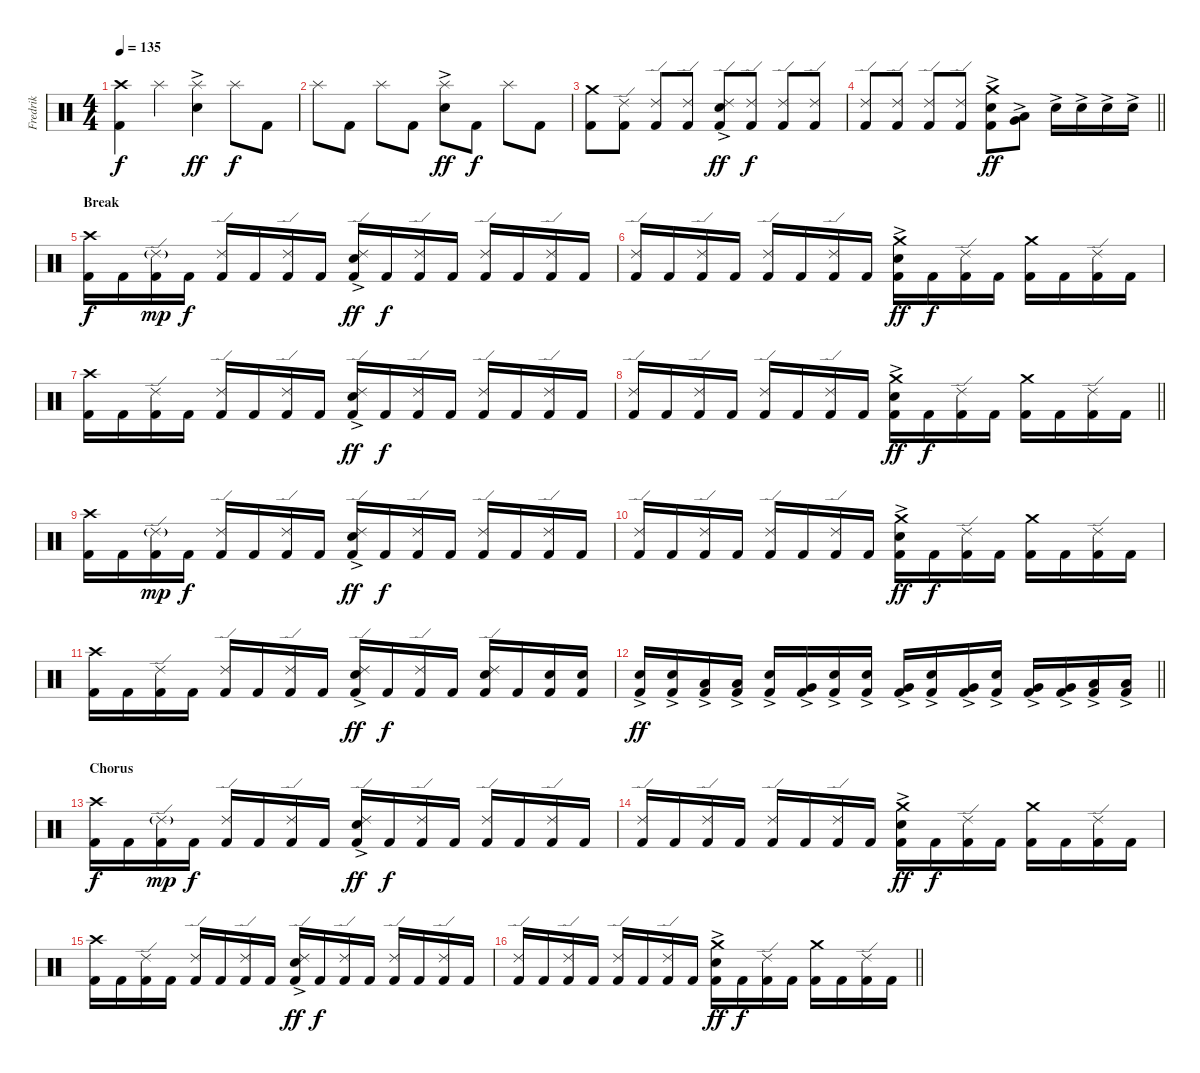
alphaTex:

\track ("Fredrik" "Fredrik") {instrument percussion}
\staff {score}
\articulation defaults
\ts (4 4)
\section ("" "")
\tempo 135
\clef neutral
\ks c
("Kick (hit) 2" "Crash high (hit)").4{dy f} "Splash (hit)".4 ("Snare (hit) 2"{ac} "Splash (hit)").4{dy ff} "Splash (hit)".8{dy f} "Kick (hit) 2".8 |
"Splash (hit)".8 "Kick (hit) 2".8 "Splash (hit)".8 "Kick (hit) 2".8 ("Snare (hit) 2"{ac} "Splash (hit)").8{dy ff} "Kick (hit) 2".8{dy f} "Splash (hit)".8 "Kick (hit) 2".8 |
("Kick (hit) 2" "Crash medium (hit)").8 ("Kick (hit) 2" "Ride (edge) 2").8 ("Kick (hit) 2" "Ride (edge) 2").8 ("Kick (hit) 2" "Ride (edge) 2").8 ("Kick (hit) 2" "Snare (hit) 2"{ac} "Ride (edge) 2").8{dy ff} ("Kick (hit) 2" "Ride (edge) 2").8{dy f} ("Kick (hit) 2" "Ride (edge) 2").8 ("Kick (hit) 2" "Ride (edge) 2").8 |
\barLineRight lightlight
("Kick (hit) 2" "Ride (edge) 2").8 ("Kick (hit) 2" "Ride (edge) 2").8 ("Kick (hit) 2" "Ride (edge) 2").8 ("Kick (hit) 2" "Ride (edge) 2").8 ("Kick (hit) 2" "Snare (hit) 2"{ac} "Crash medium (hit)").8{dy ff} ("Very Low Tom (hit)"{ac} "Low Floor Tom (hit)"{ac}).8 "Snare (hit) 2"{ac}.16 "Snare (hit) 2"{ac}.16 "Snare (hit) 2"{ac}.16 "Snare (hit) 2"{ac}.16 |
\section ("" "Break")
("Kick (hit) 2" "Crash high (hit)").16{dy f} "Kick (hit) 2".16 ("Kick (hit) 2" "Ride (edge) 2"{g}).16{dy mp} "Kick (hit) 2".16{dy f} ("Kick (hit) 2" "Ride (edge) 2").16 "Kick (hit) 2".16 ("Kick (hit) 2" "Ride (edge) 2").16 "Kick (hit) 2".16 ("Kick (hit) 2" "Snare (hit) 2"{ac} "Ride (edge) 2").16{dy ff} "Kick (hit) 2".16{dy f} ("Kick (hit) 2" "Ride (edge) 2").16 "Kick (hit) 2".16 ("Kick (hit) 2" "Ride (edge) 2").16 "Kick (hit) 2".16 ("Kick (hit) 2" "Ride (edge) 2").16 "Kick (hit) 2".16 |
("Kick (hit) 2" "Ride (edge) 2").16 "Kick (hit) 2".16 ("Kick (hit) 2" "Ride (edge) 2").16 "Kick (hit) 2".16 ("Kick (hit) 2" "Ride (edge) 2").16 "Kick (hit) 2".16 ("Kick (hit) 2" "Ride (edge) 2").16 "Kick (hit) 2".16 ("Kick (hit) 2" "Snare (hit) 2"{ac} "Crash medium (hit)").16{dy ff} "Kick (hit) 2".16{dy f} ("Kick (hit) 2" "Ride (edge) 2").16 "Kick (hit) 2".16 ("Kick (hit) 2" "Crash medium (hit)").16 "Kick (hit) 2".16 ("Kick (hit) 2" "Ride (edge) 2").16 "Kick (hit) 2".16 |
("Kick (hit) 2" "Crash high (hit)").16 "Kick (hit) 2".16 ("Kick (hit) 2" "Ride (edge) 2").16 "Kick (hit) 2".16 ("Kick (hit) 2" "Ride (edge) 2").16 "Kick (hit) 2".16 ("Kick (hit) 2" "Ride (edge) 2").16 "Kick (hit) 2".16 ("Kick (hit) 2" "Snare (hit) 2"{ac} "Ride (edge) 2").16{dy ff} "Kick (hit) 2".16{dy f} ("Kick (hit) 2" "Ride (edge) 2").16 "Kick (hit) 2".16 ("Kick (hit) 2" "Ride (edge) 2").16 "Kick (hit) 2".16 ("Kick (hit) 2" "Ride (edge) 2").16 "Kick (hit) 2".16 |
\barLineRight lightlight
("Kick (hit) 2" "Ride (edge) 2").16 "Kick (hit) 2".16 ("Kick (hit) 2" "Ride (edge) 2").16 "Kick (hit) 2".16 ("Kick (hit) 2" "Ride (edge) 2").16 "Kick (hit) 2".16 ("Kick (hit) 2" "Ride (edge) 2").16 "Kick (hit) 2".16 ("Kick (hit) 2" "Snare (hit) 2"{ac} "Crash medium (hit)").16{dy ff} "Kick (hit) 2".16{dy f} ("Kick (hit) 2" "Ride (edge) 2").16 "Kick (hit) 2".16 ("Kick (hit) 2" "Crash medium (hit)").16 "Kick (hit) 2".16 ("Kick (hit) 2" "Ride (edge) 2").16 "Kick (hit) 2".16 |
\section ("" "")
("Kick (hit) 2" "Crash high (hit)").16 "Kick (hit) 2".16 ("Kick (hit) 2" "Ride (edge) 2"{g}).16{dy mp} "Kick (hit) 2".16{dy f} ("Kick (hit) 2" "Ride (edge) 2").16 "Kick (hit) 2".16 ("Kick (hit) 2" "Ride (edge) 2").16 "Kick (hit) 2".16 ("Kick (hit) 2" "Snare (hit) 2"{ac} "Ride (edge) 2").16{dy ff} "Kick (hit) 2".16{dy f} ("Kick (hit) 2" "Ride (edge) 2").16 "Kick (hit) 2".16 ("Kick (hit) 2" "Ride (edge) 2").16 "Kick (hit) 2".16 ("Kick (hit) 2" "Ride (edge) 2").16 "Kick (hit) 2".16 |
("Kick (hit) 2" "Ride (edge) 2").16 "Kick (hit) 2".16 ("Kick (hit) 2" "Ride (edge) 2").16 "Kick (hit) 2".16 ("Kick (hit) 2" "Ride (edge) 2").16 "Kick (hit) 2".16 ("Kick (hit) 2" "Ride (edge) 2").16 "Kick (hit) 2".16 ("Kick (hit) 2" "Snare (hit) 2"{ac} "Crash medium (hit)").16{dy ff} "Kick (hit) 2".16{dy f} ("Kick (hit) 2" "Ride (edge) 2").16 "Kick (hit) 2".16 ("Kick (hit) 2" "Crash medium (hit)").16 "Kick (hit) 2".16 ("Kick (hit) 2" "Ride (edge) 2").16 "Kick (hit) 2".16 |
("Kick (hit) 2" "Crash high (hit)").16 "Kick (hit) 2".16 ("Kick (hit) 2" "Ride (edge) 2").16 "Kick (hit) 2".16 ("Kick (hit) 2" "Ride (edge) 2").16 "Kick (hit) 2".16 ("Kick (hit) 2" "Ride (edge) 2").16 "Kick (hit) 2".16 ("Kick (hit) 2" "Snare (hit) 2"{ac} "Ride (edge) 2").16{dy ff} "Kick (hit) 2".16{dy f} ("Kick (hit) 2" "Ride (edge) 2").16 "Kick (hit) 2".16 ("Kick (hit) 2" "Snare (hit) 2" "Ride (edge) 2").16 "Kick (hit) 2".16 ("Kick (hit) 2" "Snare (hit) 2").16 ("Kick (hit) 2" "Snare (hit) 2").16 |
\barLineRight lightlight
("Kick (hit) 2" "Snare (hit) 2"{ac}).16{dy ff} ("Kick (hit) 2" "Snare (hit) 2"{ac}).16 ("Kick (hit) 2" "Low Tom (hit)"{ac}).16 ("Kick (hit) 2" "Low Tom (hit)"{ac}).16 ("Kick (hit) 2" "Snare (hit) 2"{ac}).16 ("Kick (hit) 2" "Very Low Tom (hit)"{ac}).16 ("Kick (hit) 2" "Snare (hit) 2"{ac}).16 ("Kick (hit) 2" "Snare (hit) 2"{ac}).16 ("Kick (hit) 2" "Very Low Tom (hit)"{ac}).16 ("Kick (hit) 2" "Snare (hit) 2"{ac}).16 ("Kick (hit) 2" "Very Low Tom (hit)"{ac}).16 ("Kick (hit) 2" "Snare (hit) 2"{ac}).16 ("Kick (hit) 2" "Very Low Tom (hit)"{ac}).16 ("Kick (hit) 2" "Very Low Tom (hit)"{ac}).16 ("Kick (hit) 2" "Low Floor Tom (hit)"{ac}).16 ("Kick (hit) 2" "Low Floor Tom (hit)"{ac}).16 |
\section ("" "Chorus")
("Kick (hit) 2" "Crash high (hit)").16{dy f} "Kick (hit) 2".16 ("Kick (hit) 2" "Ride (edge) 2"{g}).16{dy mp} "Kick (hit) 2".16{dy f} ("Kick (hit) 2" "Ride (edge) 2").16 "Kick (hit) 2".16 ("Kick (hit) 2" "Ride (edge) 2").16 "Kick (hit) 2".16 ("Kick (hit) 2" "Snare (hit) 2"{ac} "Ride (edge) 2").16{dy ff} "Kick (hit) 2".16{dy f} ("Kick (hit) 2" "Ride (edge) 2").16 "Kick (hit) 2".16 ("Kick (hit) 2" "Ride (edge) 2").16 "Kick (hit) 2".16 ("Kick (hit) 2" "Ride (edge) 2").16 "Kick (hit) 2".16 |
("Kick (hit) 2" "Ride (edge) 2").16 "Kick (hit) 2".16 ("Kick (hit) 2" "Ride (edge) 2").16 "Kick (hit) 2".16 ("Kick (hit) 2" "Ride (edge) 2").16 "Kick (hit) 2".16 ("Kick (hit) 2" "Ride (edge) 2").16 "Kick (hit) 2".16 ("Kick (hit) 2" "Snare (hit) 2"{ac} "Crash medium (hit)").16{dy ff} "Kick (hit) 2".16{dy f} ("Kick (hit) 2" "Ride (edge) 2").16 "Kick (hit) 2".16 ("Kick (hit) 2" "Crash medium (hit)").16 "Kick (hit) 2".16 ("Kick (hit) 2" "Ride (edge) 2").16 "Kick (hit) 2".16 |
("Kick (hit) 2" "Crash high (hit)").16 "Kick (hit) 2".16 ("Kick (hit) 2" "Ride (edge) 2").16 "Kick (hit) 2".16 ("Kick (hit) 2" "Ride (edge) 2").16 "Kick (hit) 2".16 ("Kick (hit) 2" "Ride (edge) 2").16 "Kick (hit) 2".16 ("Kick (hit) 2" "Snare (hit) 2"{ac} "Ride (edge) 2").16{dy ff} "Kick (hit) 2".16{dy f} ("Kick (hit) 2" "Ride (edge) 2").16 "Kick (hit) 2".16 ("Kick (hit) 2" "Ride (edge) 2").16 "Kick (hit) 2".16 ("Kick (hit) 2" "Ride (edge) 2").16 "Kick (hit) 2".16 |
\barLineRight lightlight
("Kick (hit) 2" "Ride (edge) 2").16 "Kick (hit) 2".16 ("Kick (hit) 2" "Ride (edge) 2").16 "Kick (hit) 2".16 ("Kick (hit) 2" "Ride (edge) 2").16 "Kick (hit) 2".16 ("Kick (hit) 2" "Ride (edge) 2").16 "Kick (hit) 2".16 ("Kick (hit) 2" "Snare (hit) 2"{ac} "Crash medium (hit)").16{dy ff} "Kick (hit) 2".16{dy f} ("Kick (hit) 2" "Ride (edge) 2").16 "Kick (hit) 2".16 ("Kick (hit) 2" "Crash medium (hit)").16 "Kick (hit) 2".16 ("Kick (hit) 2" "Ride (edge) 2").16 "Kick (hit) 2".16
